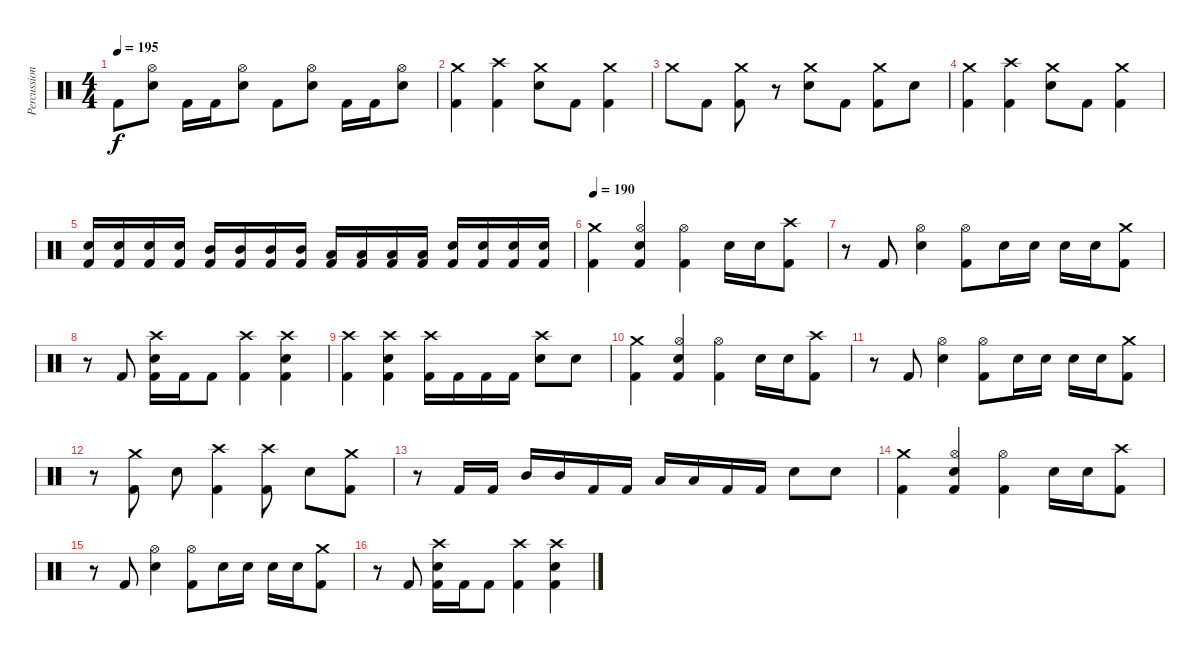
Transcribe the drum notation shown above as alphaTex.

\track ("Percussion" "Percussion") {instrument percussion}
\staff {score}
\articulation defaults
\ts (4 4)
\tempo 195
\clef neutral
\ks c "Kick (hit) 2".8{dy f}
("Hi-Hat (open)" "Electric Snare (hit)").8 "Kick (hit) 2".16 "Kick (hit) 2".16 ("Hi-Hat (open)" "Electric Snare (hit)").8 "Kick (hit) 2".8 ("Hi-Hat (open)" "Electric Snare (hit)").8 "Kick (hit) 2".16 "Kick (hit) 2".16 ("Hi-Hat (open)" "Electric Snare (hit)").8 |
("Crash medium (hit)" "Kick (hit) 2").4 ("Crash high (hit)" "Kick (hit) 2").4 ("Crash medium (hit)" "Electric Snare (hit)").8 "Kick (hit) 2".8 ("Crash medium (hit)" "Kick (hit) 2").4 |
"Crash medium (hit)".8 "Kick (hit) 2".8 ("Crash medium (hit)" "Kick (hit) 2").8 r.8 ("Crash medium (hit)" "Electric Snare (hit)").8 "Kick (hit) 2".8 ("Crash medium (hit)" "Kick (hit) 2").8 "Electric Snare (hit)".8 |
("Crash medium (hit)" "Kick (hit) 2").4 ("Crash high (hit)" "Kick (hit) 2").4 ("Crash medium (hit)" "Electric Snare (hit)").8 "Kick (hit) 2".8 ("Crash medium (hit)" "Kick (hit) 2").4 |
("Electric Snare (hit)" "Kick (hit) 2").16 ("Electric Snare (hit)" "Kick (hit) 2").16 ("Electric Snare (hit)" "Kick (hit) 2").16 ("Electric Snare (hit)" "Kick (hit) 2").16 ("Mid Tom (hit)" "Kick (hit) 2").16 ("Mid Tom (hit)" "Kick (hit) 2").16 ("Mid Tom (hit)" "Kick (hit) 2").16 ("Mid Tom (hit)" "Kick (hit) 2").16 ("Low Tom (hit)" "Kick (hit) 2").16 ("Low Tom (hit)" "Kick (hit) 2").16 ("Low Tom (hit)" "Kick (hit) 2").16 ("Low Tom (hit)" "Kick (hit) 2").16 ("Electric Snare (hit)" "Kick (hit) 2").16 ("Electric Snare (hit)" "Kick (hit) 2").16 ("Electric Snare (hit)" "Kick (hit) 2").16 ("Electric Snare (hit)" "Kick (hit) 2").16 |
\tempo 190
("Crash medium (hit)" "Kick (hit) 2").4 ("Hi-Hat (open)" "Electric Snare (hit)" "Kick (hit) 2").4 ("Hi-Hat (open)" "Kick (hit) 2").4 "Electric Snare (hit)".16 "Electric Snare (hit)".16 ("Crash high (hit)" "Kick (hit) 2").8 |
r.8 "Kick (hit) 2".8 ("Hi-Hat (open)" "Electric Snare (hit)").4 ("Hi-Hat (open)" "Kick (hit) 2").8 "Electric Snare (hit)".16 "Electric Snare (hit)".16 "Electric Snare (hit)".16 "Electric Snare (hit)".16 ("Crash medium (hit)" "Kick (hit) 2").8 |
r.8 "Kick (hit) 2".8 ("Crash high (hit)" "Electric Snare (hit)" "Kick (hit) 2").16 "Kick (hit) 2".16 "Kick (hit) 2".8 ("Crash high (hit)" "Kick (hit) 2").4 ("Crash high (hit)" "Electric Snare (hit)" "Kick (hit) 2").4 |
("Crash high (hit)" "Kick (hit) 2").4 ("Crash high (hit)" "Electric Snare (hit)" "Kick (hit) 2").4 ("Crash high (hit)" "Kick (hit) 2").16 "Kick (hit) 2".16 "Kick (hit) 2".16 "Kick (hit) 2".16 ("Crash high (hit)" "Electric Snare (hit)").8 "Electric Snare (hit)".8 |
("Crash medium (hit)" "Kick (hit) 2").4 ("Hi-Hat (open)" "Electric Snare (hit)" "Kick (hit) 2").4 ("Hi-Hat (open)" "Kick (hit) 2").4 "Electric Snare (hit)".16 "Electric Snare (hit)".16 ("Crash high (hit)" "Kick (hit) 2").8 |
r.8 "Kick (hit) 2".8 ("Hi-Hat (open)" "Electric Snare (hit)").4 ("Hi-Hat (open)" "Kick (hit) 2").8 "Electric Snare (hit)".16 "Electric Snare (hit)".16 "Electric Snare (hit)".16 "Electric Snare (hit)".16 ("Crash medium (hit)" "Kick (hit) 2").8 |
r.8 ("Crash medium (hit)" "Kick (hit) 2").8 "Electric Snare (hit)".8 ("Crash high (hit)" "Kick (hit) 2").4 ("Crash high (hit)" "Kick (hit) 2").8 "Electric Snare (hit)".8 ("Crash medium (hit)" "Kick (hit) 2").8 |
r.8 "Kick (hit) 2".16 "Kick (hit) 2".16 "Mid Tom (hit)".16 "Mid Tom (hit)".16 "Kick (hit) 2".16 "Kick (hit) 2".16 "Low Tom (hit)".16 "Low Tom (hit)".16 "Kick (hit) 2".16 "Kick (hit) 2".16 "Electric Snare (hit)".8 "Electric Snare (hit)".8 |
("Crash medium (hit)" "Kick (hit) 2").4 ("Hi-Hat (open)" "Electric Snare (hit)" "Kick (hit) 2").4 ("Hi-Hat (open)" "Kick (hit) 2").4 "Electric Snare (hit)".16 "Electric Snare (hit)".16 ("Crash high (hit)" "Kick (hit) 2").8 |
r.8 "Kick (hit) 2".8 ("Hi-Hat (open)" "Electric Snare (hit)").4 ("Hi-Hat (open)" "Kick (hit) 2").8 "Electric Snare (hit)".16 "Electric Snare (hit)".16 "Electric Snare (hit)".16 "Electric Snare (hit)".16 ("Crash medium (hit)" "Kick (hit) 2").8 |
r.8 "Kick (hit) 2".8 ("Crash high (hit)" "Electric Snare (hit)" "Kick (hit) 2").16 "Kick (hit) 2".16 "Kick (hit) 2".8 ("Crash high (hit)" "Kick (hit) 2").4 ("Crash high (hit)" "Electric Snare (hit)" "Kick (hit) 2").4
